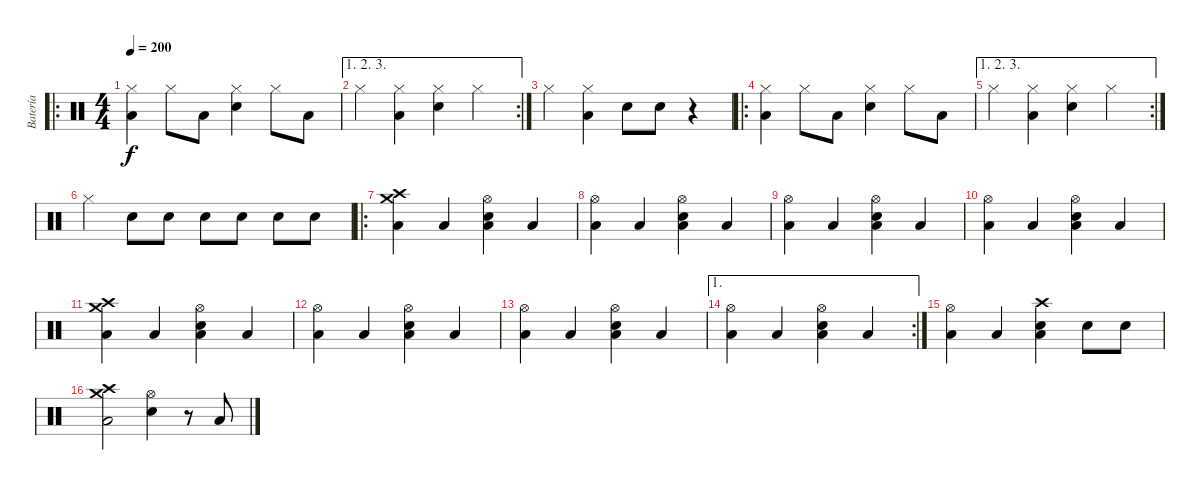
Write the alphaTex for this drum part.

\track ("Batería" "Batería") {instrument percussion}
\staff {score}
\articulation defaults
\ro
\ts (4 4)
\tempo 200
\clef neutral
\ks c
("Hi-Hat (closed)" "Low Floor Tom (hit)").4{dy f} "Hi-Hat (closed)".8 "Low Floor Tom (hit)".8 ("Hi-Hat (closed)" "Electric Snare (hit)").4 "Hi-Hat (closed)".8 "Low Floor Tom (hit)".8 |
\ae (1 2 3)
\rc 2 "Hi-Hat (closed)".4
("Hi-Hat (closed)" "Low Floor Tom (hit)").4 ("Hi-Hat (closed)" "Electric Snare (hit)").4 "Hi-Hat (closed)".4 |
"Hi-Hat (closed)".4 ("Hi-Hat (closed)" "Low Floor Tom (hit)").4 "Electric Snare (hit)".8 "Electric Snare (hit)".8 r.4 |
\ro
("Hi-Hat (closed)" "Low Floor Tom (hit)").4 "Hi-Hat (closed)".8 "Low Floor Tom (hit)".8 ("Hi-Hat (closed)" "Electric Snare (hit)").4 "Hi-Hat (closed)".8 "Low Floor Tom (hit)".8 |
\ae (1 2 3)
\rc 2 "Hi-Hat (closed)".4
("Hi-Hat (closed)" "Low Floor Tom (hit)").4 ("Hi-Hat (closed)" "Electric Snare (hit)").4 "Hi-Hat (closed)".4 |
"Hi-Hat (closed)".4 "Electric Snare (hit)".8 "Electric Snare (hit)".8 "Electric Snare (hit)".8 "Electric Snare (hit)".8 "Electric Snare (hit)".8 "Electric Snare (hit)".8 |
\ro
("Crash high (hit)" "Crash medium (hit)" "Low Floor Tom (hit)").4 "Low Floor Tom (hit)".4 ("Hi-Hat (open)" "Electric Snare (hit)" "Low Floor Tom (hit)").4 "Low Floor Tom (hit)".4 |
("Hi-Hat (open)" "Low Floor Tom (hit)").4 "Low Floor Tom (hit)".4 ("Hi-Hat (open)" "Electric Snare (hit)" "Low Floor Tom (hit)").4 "Low Floor Tom (hit)".4 |
("Hi-Hat (open)" "Low Floor Tom (hit)").4 "Low Floor Tom (hit)".4 ("Hi-Hat (open)" "Electric Snare (hit)" "Low Floor Tom (hit)").4 "Low Floor Tom (hit)".4 |
("Hi-Hat (open)" "Low Floor Tom (hit)").4 "Low Floor Tom (hit)".4 ("Hi-Hat (open)" "Electric Snare (hit)" "Low Floor Tom (hit)").4 "Low Floor Tom (hit)".4 |
("Crash high (hit)" "Crash medium (hit)" "Low Floor Tom (hit)").4 "Low Floor Tom (hit)".4 ("Hi-Hat (open)" "Electric Snare (hit)" "Low Floor Tom (hit)").4 "Low Floor Tom (hit)".4 |
("Hi-Hat (open)" "Low Floor Tom (hit)").4 "Low Floor Tom (hit)".4 ("Hi-Hat (open)" "Electric Snare (hit)" "Low Floor Tom (hit)").4 "Low Floor Tom (hit)".4 |
("Hi-Hat (open)" "Low Floor Tom (hit)").4 "Low Floor Tom (hit)".4 ("Hi-Hat (open)" "Electric Snare (hit)" "Low Floor Tom (hit)").4 "Low Floor Tom (hit)".4 |
\ae 1
\rc 2
("Hi-Hat (open)" "Low Floor Tom (hit)").4 "Low Floor Tom (hit)".4 ("Hi-Hat (open)" "Electric Snare (hit)" "Low Floor Tom (hit)").4 "Low Floor Tom (hit)".4 |
("Hi-Hat (open)" "Low Floor Tom (hit)").4 "Low Floor Tom (hit)".4 ("Crash high (hit)" "Electric Snare (hit)" "Low Floor Tom (hit)").4 "Electric Snare (hit)".8 "Electric Snare (hit)".8 |
("Crash high (hit)" "Crash medium (hit)" "Low Floor Tom (hit)").2 ("Hi-Hat (open)" "Electric Snare (hit)").4 r.8 "Low Floor Tom (hit)".8
